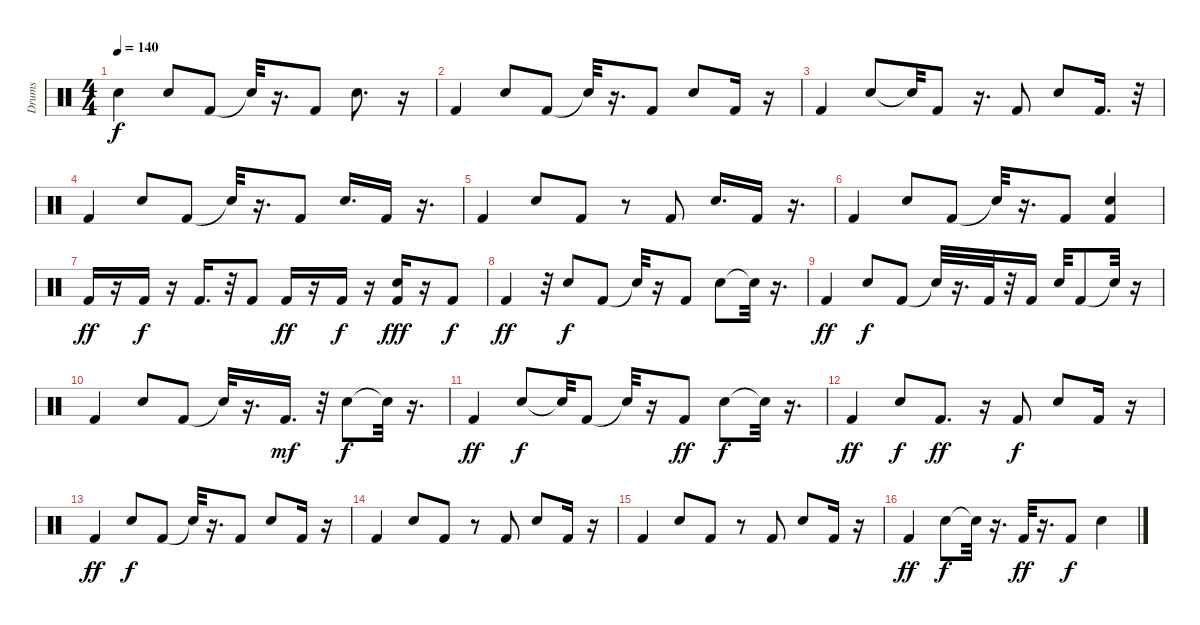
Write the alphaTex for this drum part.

\track ("Drums" "Drums") {instrument percussion}
\staff {score}
\articulation defaults
\ts (4 4)
\tempo 140
\clef neutral
\ks c "Snare (hit)"{t}.4{dy f} "Snare (hit) 2".8 "Kick (hit) 2".8 "Snare (hit)"{t}.32
r.16{d} "Kick (hit) 2".8 "Snare (hit) 2".8{d} r.16 |
"Kick (hit) 2".4 "Snare (hit) 2".8 "Kick (hit) 2".8 "Snare (hit)"{t}.32 r.16{d} "Kick (hit) 2".8 "Snare (hit) 2".8 "Kick (hit) 2".16 r.16 |
"Kick (hit) 2".4 "Snare (hit) 2".8 "Snare (hit)"{t}.32 "Kick (hit) 2".8 r.16{d} "Kick (hit) 2".8 "Snare (hit) 2".8 "Kick (hit) 2".16{d} r.32 |
"Kick (hit) 2".4 "Snare (hit) 2".8 "Kick (hit) 2".8 "Snare (hit)"{t}.32 r.16{d} "Kick (hit) 2".8 "Snare (hit) 2".16{d} "Kick (hit) 2".16 r.16{d} |
"Kick (hit) 2".4 "Snare (hit) 2".8 "Kick (hit) 2".8 r.8 "Kick (hit) 2".8 "Snare (hit) 2".16{d} "Kick (hit) 2".16 r.16{d} |
"Kick (hit) 2".4 "Snare (hit) 2".8 "Kick (hit) 2".8 "Snare (hit)"{t}.32 r.16{d} "Kick (hit) 2".8 ("Snare (hit) 2" "Kick (hit) 2").4 |
"Kick (hit) 2".16{dy ff} r.16 "Kick (hit) 2".16{dy f} r.16 "Kick (hit) 2".16{d} r.32 "Kick (hit) 2".8 "Kick (hit) 2".16{dy ff} r.16 "Kick (hit) 2".16{dy f} r.16 ("Snare (hit) 2" "Kick (hit) 2").16{dy fff} r.16 "Kick (hit) 2".8{dy f} |
"Kick (hit) 2".4{dy ff} r.32 "Snare (hit) 2".8{dy f} "Kick (hit) 2".8 "Snare (hit)"{t}.32 r.16 "Kick (hit) 2".8 "Snare (hit) 2".8 "Snare (hit)"{t}.32 r.16{d} |
"Kick (hit) 2".4{dy ff} "Snare (hit) 2".8{dy f} "Kick (hit) 2".8 "Snare (hit)"{t}.32 r.16{d} "Kick (hit) 2".32 r.32 "Kick (hit) 2".16 "Snare (hit) 2".32 "Kick (hit) 2".8 "Snare (hit)"{t}.32 r.16 |
"Kick (hit) 2".4 "Snare (hit) 2".8 "Kick (hit) 2".8 "Snare (hit)"{t}.32 r.16{d} "Kick (hit) 2".16{d dy mf} r.32 "Snare (hit) 2".8{dy f} "Snare (hit)"{t}.32 r.16{d} |
"Kick (hit) 2".4{dy ff} "Snare (hit) 2".8{dy f} "Snare (hit)"{t}.32 "Kick (hit) 2".8 "Snare (hit)"{t}.32 r.16 "Kick (hit) 2".8{dy ff} "Snare (hit) 2".8{dy f} "Snare (hit)"{t}.32 r.16{d} |
"Kick (hit) 2".4{dy ff} "Snare (hit) 2".8{dy f} "Kick (hit) 2".8{d dy ff} r.16 "Kick (hit) 2".8{dy f} "Snare (hit) 2".8 "Kick (hit) 2".16 r.16 |
"Kick (hit) 2".4{dy ff} "Snare (hit) 2".8{dy f} "Kick (hit) 2".8 "Snare (hit)"{t}.32 r.16{d} "Kick (hit) 2".8 "Snare (hit) 2".8 "Kick (hit) 2".16 r.16 |
"Kick (hit) 2".4 "Snare (hit) 2".8 "Kick (hit) 2".8 r.8 "Kick (hit) 2".8 "Snare (hit) 2".8 "Kick (hit) 2".16 r.16 |
"Kick (hit) 2".4 "Snare (hit) 2".8 "Kick (hit) 2".8 r.8 "Kick (hit) 2".8 "Snare (hit) 2".8 "Kick (hit) 2".16 r.16 |
"Kick (hit) 2".4{dy ff} "Snare (hit) 2".8{dy f} "Snare (hit)"{t}.32 r.16{d} "Kick (hit) 2".32{dy ff} r.16{d} "Kick (hit) 2".8{dy f} "Snare (hit) 2".4
